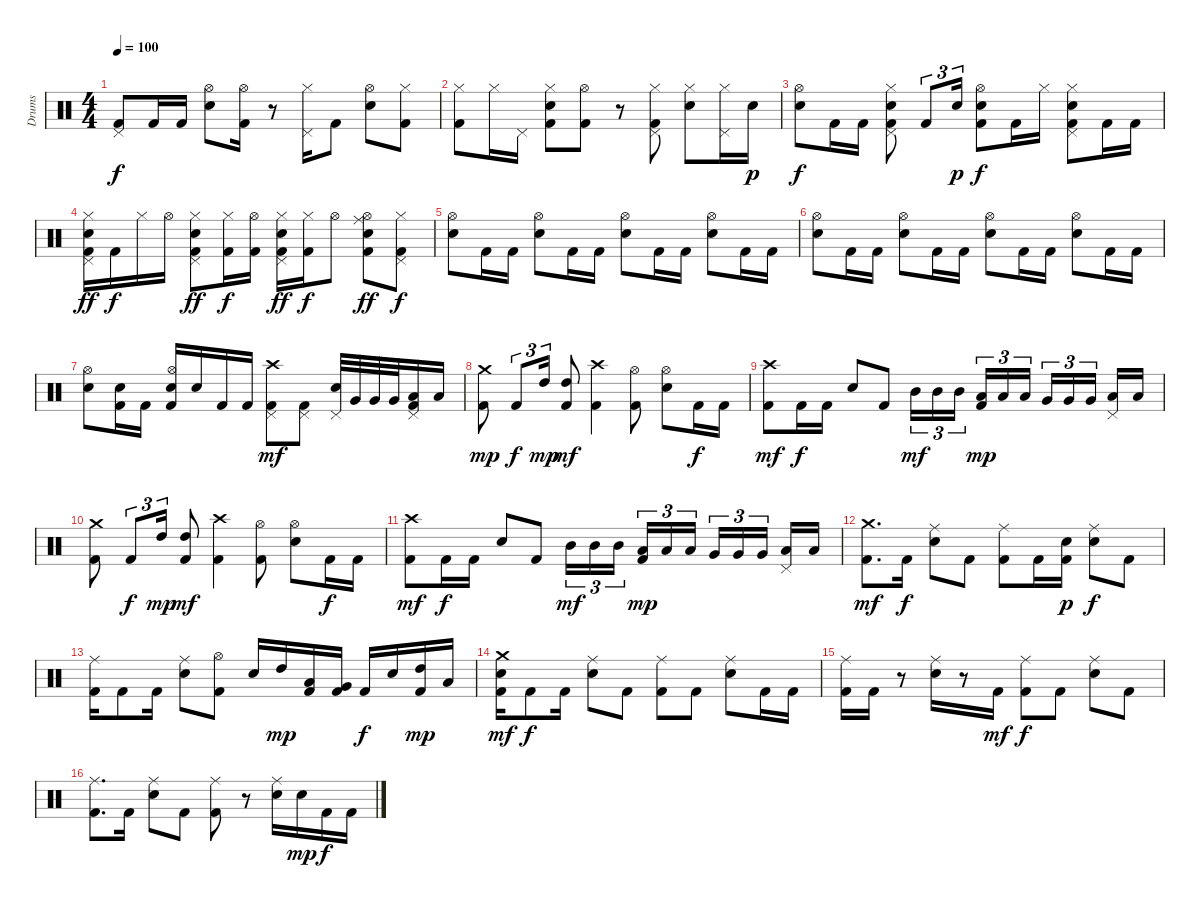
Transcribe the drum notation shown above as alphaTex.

\track ("Drums" "Drums") {instrument percussion}
\staff {score}
\articulation defaults
\ts (4 4)
\tempo 100
\clef neutral
\ks c
("Pedal Hi-Hat (hit)" "Kick (hit) 2").8{dy f} "Kick (hit) 2".16 "Kick (hit) 2".16 ("Hi-Hat (open)" "Electric Snare (hit)").8 ("Kick (hit) 2" "Hi-Hat (open)").16 r.8 ("Hi-Hat (closed)" "Pedal Hi-Hat (hit)").16 "Kick (hit) 2".8 ("Hi-Hat (open)" "Electric Snare (hit)").8 ("Hi-Hat (closed)" "Kick (hit) 2").8 |
("Kick (hit) 2" "Hi-Hat (closed)").8 "Hi-Hat (closed)".16 "Pedal Hi-Hat (hit)".16 ("Hi-Hat (closed)" "Kick (hit) 2" "Electric Snare (hit)").8 ("Kick (hit) 2" "Hi-Hat (open)").8 r.8 ("Pedal Hi-Hat (hit)" "Hi-Hat (closed)" "Kick (hit) 2").8 ("Hi-Hat (closed)" "Electric Snare (hit)").8 ("Pedal Hi-Hat (hit)" "Hi-Hat (closed)").16 "Electric Snare (hit)".16{dy p} |
("Hi-Hat (open)" "Electric Snare (hit)").8{dy f} "Kick (hit) 2".16 "Kick (hit) 2".16 ("Kick (hit) 2" "Hi-Hat (closed)" "Pedal Hi-Hat (hit)" "Electric Snare (hit)").8 "Kick (hit) 2".8{tu (3 2)} "Electric Snare (hit)".16{tu (3 2) dy p} ("Kick (hit) 2" "Hi-Hat (open)" "Electric Snare (hit)").8{dy f} "Kick (hit) 2".16 "Hi-Hat (closed)".16 ("Kick (hit) 2" "Pedal Hi-Hat (hit)" "Hi-Hat (closed)" "Electric Snare (hit)").8 "Kick (hit) 2".16 "Kick (hit) 2".16 |
("Kick (hit) 2" "Pedal Hi-Hat (hit)" "Hi-Hat (closed)" "Electric Snare (hit)").16{dy ff} "Kick (hit) 2".16{dy f} "Hi-Hat (closed)".16 "Hi-Hat (open)".16 ("Kick (hit) 2" "Pedal Hi-Hat (hit)" "Hi-Hat (closed)" "Electric Snare (hit)").8{dy ff} ("Hi-Hat (closed)" "Kick (hit) 2").16{dy f} ("Hi-Hat (open)" "Kick (hit) 2").16 ("Kick (hit) 2" "Pedal Hi-Hat (hit)" "Hi-Hat (closed)" "Electric Snare (hit)").16{dy ff} ("Hi-Hat (closed)" "Kick (hit) 2").16{dy f} "Hi-Hat (open)".8 ("Kick (hit) 2" "Ride (middle)" "Electric Snare (hit)" "Hi-Hat (open)").8{dy ff} ("Pedal Hi-Hat (hit)" "Hi-Hat (closed)" "Kick (hit) 2").8{dy f} |
("Hi-Hat (open)" "Electric Snare (hit)").8 "Kick (hit) 2".16 "Kick (hit) 2".16 ("Hi-Hat (open)" "Electric Snare (hit)").8 "Kick (hit) 2".16 "Kick (hit) 2".16 ("Hi-Hat (open)" "Electric Snare (hit)").8 "Kick (hit) 2".16 "Kick (hit) 2".16 ("Hi-Hat (open)" "Electric Snare (hit)").8 "Kick (hit) 2".16 "Kick (hit) 2".16 |
("Hi-Hat (open)" "Electric Snare (hit)").8 "Kick (hit) 2".16 "Kick (hit) 2".16 ("Hi-Hat (open)" "Electric Snare (hit)").8 "Kick (hit) 2".16 "Kick (hit) 2".16 ("Hi-Hat (open)" "Electric Snare (hit)").8 "Kick (hit) 2".16 "Kick (hit) 2".16 ("Hi-Hat (open)" "Electric Snare (hit)").8 "Kick (hit) 2".16 "Kick (hit) 2".16 |
("Hi-Hat (open)" "Electric Snare (hit)").8 ("Kick (hit) 2" "Electric Snare (hit)").16 "Kick (hit) 2".16 ("Kick (hit) 2" "Hi-Hat (open)" "Electric Snare (hit)").16 "Electric Snare (hit)".16 "Kick (hit) 2".16 "Kick (hit) 2".16 ("Pedal Hi-Hat (hit)" "Kick (hit) 2" "Crash high (hit)").8{dy mf} ("Pedal Hi-Hat (hit)" "Kick (hit) 2").8 ("Pedal Hi-Hat (hit)" "Electric Snare (hit)").32 "Very Low Tom (hit)".32 "Very Low Tom (hit)".32 "Very Low Tom (hit)".32 ("Pedal Hi-Hat (hit)" "Kick (hit) 2" "Low Floor Tom (hit)").16 "Low Floor Tom (hit)".16 |
("Kick (hit) 2" "Crash medium (hit)").8{dy mp} "Kick (hit) 2".8{tu (3 2) dy f} "High Tom (hit)".16{tu (3 2) dy mp} ("Kick (hit) 2" "High Tom (hit)").8{dy mf} ("Crash high (hit)" "Kick (hit) 2").4 ("Kick (hit) 2" "Hi-Hat (open)").8 ("Electric Snare (hit)" "Hi-Hat (open)").8 "Kick (hit) 2".16{dy f} "Kick (hit) 2".16 |
("Kick (hit) 2" "Crash high (hit)").8{dy mf} "Kick (hit) 2".16{dy f} "Kick (hit) 2".16 "Electric Snare (hit)".8 "Kick (hit) 2".8 "Mid Tom (hit)".16{tu (3 2) dy mf} "Mid Tom (hit)".16{tu (3 2)} "Mid Tom (hit)".16{tu (3 2)} ("Kick (hit) 2" "Low Tom (hit)").16{tu (3 2) dy mp} "Low Tom (hit)".16{tu (3 2)} "Low Tom (hit)".16{tu (3 2)} "Very Low Tom (hit)".16{tu (3 2)} "Very Low Tom (hit)".16{tu (3 2)} "Very Low Tom (hit)".16{tu (3 2)} ("Pedal Hi-Hat (hit)" "Low Floor Tom (hit)").16 "Low Floor Tom (hit)".16 |
("Kick (hit) 2" "Crash medium (hit)").8 "Kick (hit) 2".8{tu (3 2) dy f} "High Tom (hit)".16{tu (3 2) dy mp} ("Kick (hit) 2" "High Tom (hit)").8{dy mf} ("Crash high (hit)" "Kick (hit) 2").4 ("Kick (hit) 2" "Hi-Hat (open)").8 ("Electric Snare (hit)" "Hi-Hat (open)").8 "Kick (hit) 2".16{dy f} "Kick (hit) 2".16 |
("Kick (hit) 2" "Crash high (hit)").8{dy mf} "Kick (hit) 2".16{dy f} "Kick (hit) 2".16 "Electric Snare (hit)".8 "Kick (hit) 2".8 "Mid Tom (hit)".16{tu (3 2) dy mf} "Mid Tom (hit)".16{tu (3 2)} "Mid Tom (hit)".16{tu (3 2)} ("Kick (hit) 2" "Low Tom (hit)").16{tu (3 2) dy mp} "Low Tom (hit)".16{tu (3 2)} "Low Tom (hit)".16{tu (3 2)} "Very Low Tom (hit)".16{tu (3 2)} "Very Low Tom (hit)".16{tu (3 2)} "Very Low Tom (hit)".16{tu (3 2)} ("Pedal Hi-Hat (hit)" "Low Floor Tom (hit)").16 "Low Floor Tom (hit)".16 |
("Crash medium (hit)" "Kick (hit) 2").8{d dy mf} "Kick (hit) 2".16{dy f} ("Ride (middle)" "Electric Snare (hit)").8 "Kick (hit) 2".8 ("Kick (hit) 2" "Ride (middle)").8 "Kick (hit) 2".16 ("Kick (hit) 2" "Electric Snare (hit)").16{dy p} ("Ride (middle)" "Electric Snare (hit)").8{dy f} "Kick (hit) 2".8 |
("Ride (middle)" "Kick (hit) 2").16 "Kick (hit) 2".8 "Kick (hit) 2".16 ("Ride (middle)" "Electric Snare (hit)").8 ("Kick (hit) 2" "Hi-Hat (open)").8 "Electric Snare (hit)".16 "High Tom (hit)".16{dy mp} ("Low Tom (hit)" "Kick (hit) 2").16 ("Very Low Tom (hit)" "Kick (hit) 2").16 "Kick (hit) 2".16{dy f} "Electric Snare (hit)".16 ("Kick (hit) 2" "High Tom (hit)").16{dy mp} "Low Tom (hit)".16 |
("Kick (hit) 2" "Electric Snare (hit)" "Crash medium (hit)").16{dy mf} "Kick (hit) 2".8{dy f} "Kick (hit) 2".16 ("Ride (middle)" "Electric Snare (hit)").8 "Kick (hit) 2".8 ("Kick (hit) 2" "Ride (middle)").8 "Kick (hit) 2".8 ("Electric Snare (hit)" "Ride (middle)").8 "Kick (hit) 2".16 "Kick (hit) 2".16 |
("Ride (middle)" "Kick (hit) 2").16 "Kick (hit) 2".16 r.8 ("Ride (middle)" "Electric Snare (hit)").16 r.8 "Kick (hit) 2".16{dy mf} ("Kick (hit) 2" "Ride (middle)").8{dy f} "Kick (hit) 2".8 ("Electric Snare (hit)" "Ride (middle)").8 "Kick (hit) 2".8 |
("Kick (hit) 2" "Ride (middle)").8{d} "Kick (hit) 2".16 ("Electric Snare (hit)" "Ride (middle)").8 "Kick (hit) 2".8 ("Kick (hit) 2" "Ride (middle)").8 r.8 ("Electric Snare (hit)" "Ride (middle)").16 "Electric Snare (hit)".16{dy mp} "Kick (hit) 2".16{dy f} "Kick (hit) 2".16
